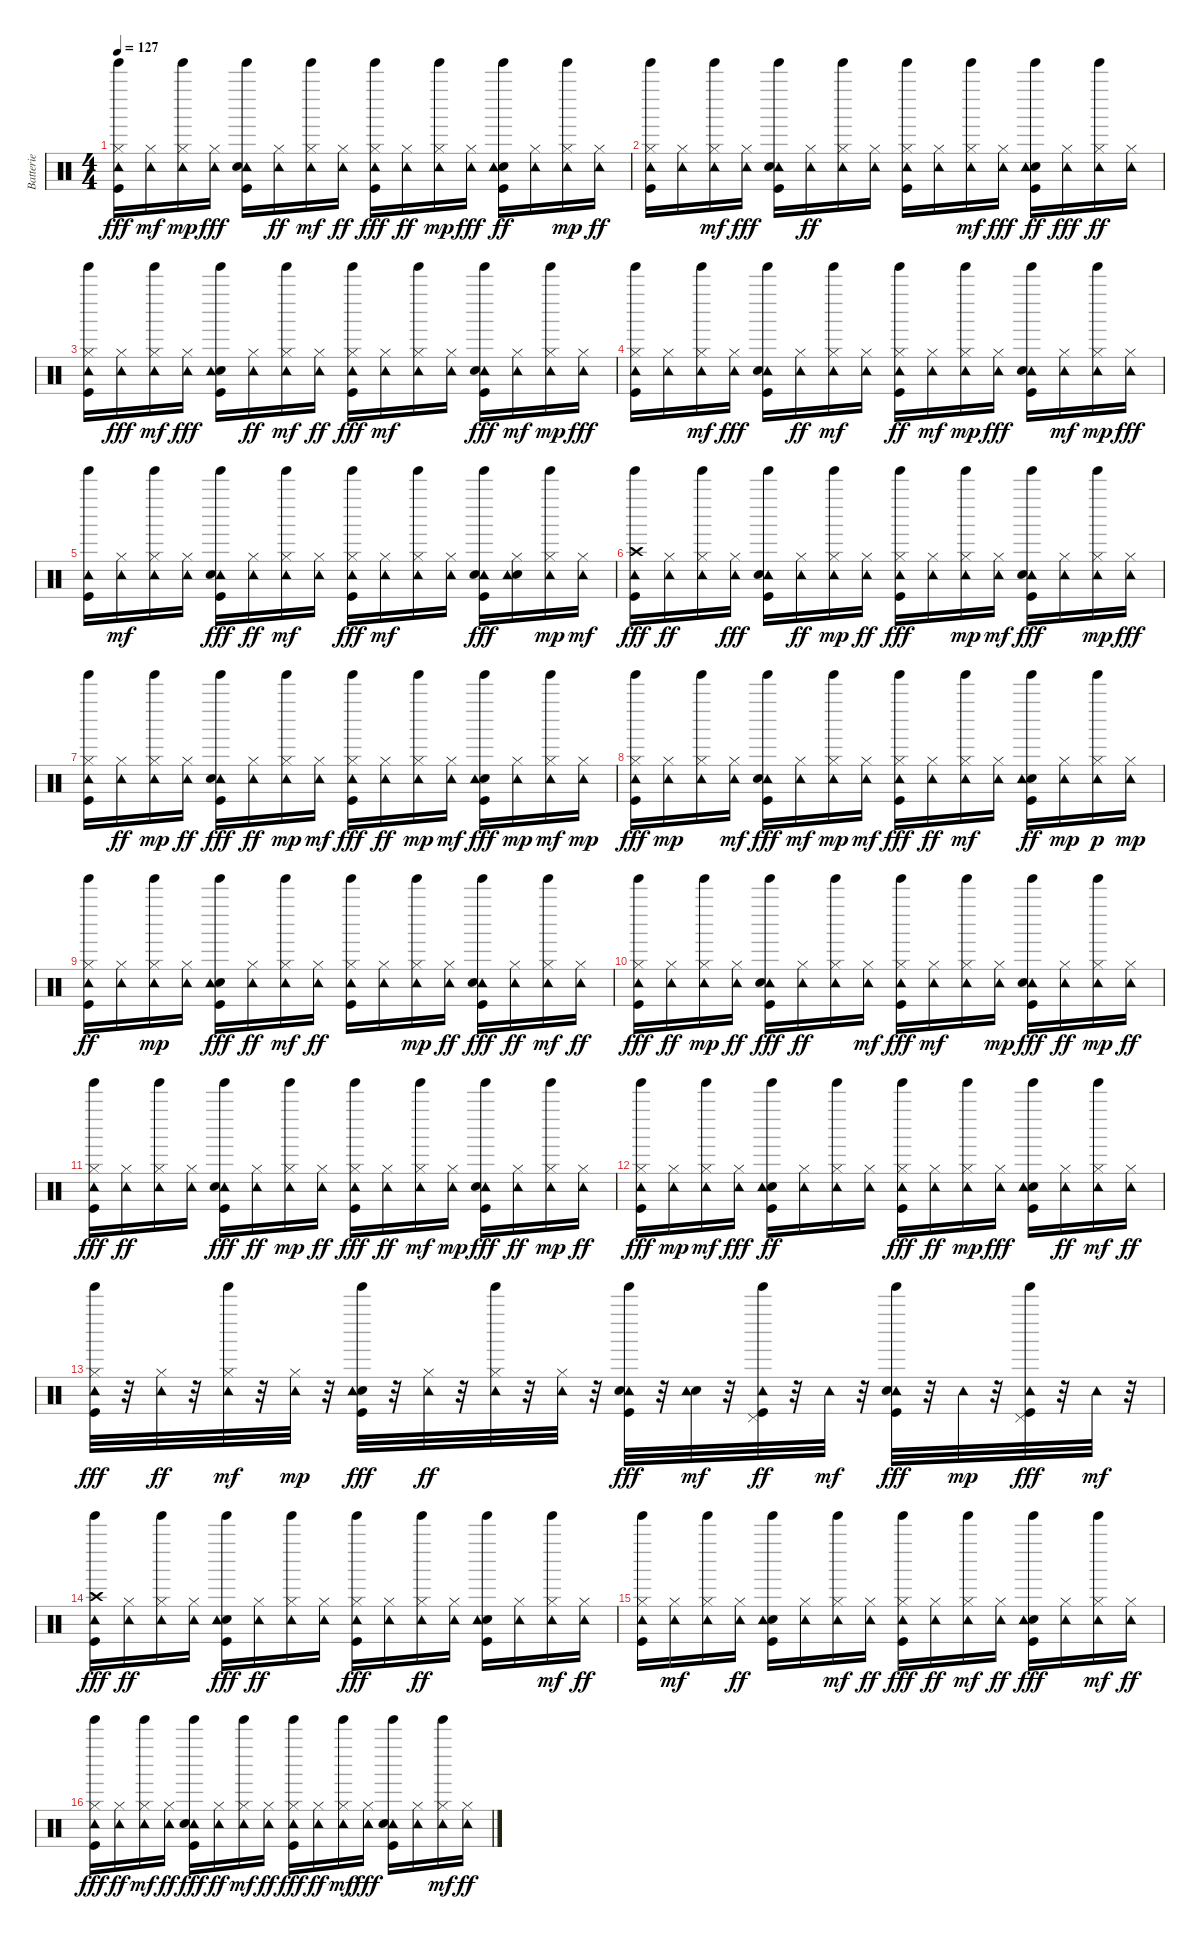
\track ("Batterie" "Batterie") {instrument percussion}
\staff {score}
\articulation defaults
\ts (4 4)
\tempo 127
\clef neutral
\ks c
("Tinkle Bell (hit)" "Tambourine (hit)" "Hi-Hat (closed)" "Kick (hit)").16{dy fff} ("Tambourine (hit)" "Hi-Hat (closed)").16{dy mf} ("Tinkle Bell (hit)" "Hi-Hat (closed)" "Tambourine (hit)").16{dy mp} ("Tambourine (hit)" "Hi-Hat (closed)").16{dy fff} ("Tinkle Bell (hit)" "Tambourine (hit)" "Kick (hit)" "Snare (hit) 2").16 ("Tambourine (hit)" "Hi-Hat (closed)").16{dy ff} ("Tinkle Bell (hit)" "Tambourine (hit)" "Hi-Hat (closed)").16{dy mf} ("Tambourine (hit)" "Hi-Hat (closed)").16{dy ff} ("Tinkle Bell (hit)" "Tambourine (hit)" "Hi-Hat (closed)" "Kick (hit)").16{dy fff} ("Tambourine (hit)" "Hi-Hat (closed)").16{dy ff} ("Hi-Hat (closed)" "Tambourine (hit)" "Tinkle Bell (hit)").16{dy mp} ("Tambourine (hit)" "Hi-Hat (closed)").16{dy fff} ("Tinkle Bell (hit)" "Kick (hit)" "Snare (hit) 2" "Tambourine (hit)").16{dy ff} ("Tambourine (hit)" "Hi-Hat (closed)").16 ("Tinkle Bell (hit)" "Tambourine (hit)" "Hi-Hat (closed)").16{dy mp} ("Tambourine (hit)" "Hi-Hat (closed)").16{dy ff} |
("Tinkle Bell (hit)" "Kick (hit)" "Hi-Hat (closed)" "Tambourine (hit)").16 ("Tambourine (hit)" "Hi-Hat (closed)").16 ("Hi-Hat (closed)" "Tinkle Bell (hit)" "Tambourine (hit)").16{dy mf} ("Tambourine (hit)" "Hi-Hat (closed)").16{dy fff} ("Tinkle Bell (hit)" "Kick (hit)" "Tambourine (hit)" "Snare (hit) 2").16 ("Tambourine (hit)" "Hi-Hat (closed)").16{dy ff} ("Tinkle Bell (hit)" "Tambourine (hit)" "Hi-Hat (closed)").16 ("Tambourine (hit)" "Hi-Hat (closed)").16 ("Tinkle Bell (hit)" "Kick (hit)" "Hi-Hat (closed)" "Tambourine (hit)").16 ("Tambourine (hit)" "Hi-Hat (closed)").16 ("Tinkle Bell (hit)" "Hi-Hat (closed)" "Tambourine (hit)").16{dy mf} ("Tambourine (hit)" "Hi-Hat (closed)").16{dy fff} ("Tinkle Bell (hit)" "Kick (hit)" "Snare (hit) 2" "Tambourine (hit)").16{dy ff} ("Tambourine (hit)" "Hi-Hat (closed)").16{dy fff} ("Tambourine (hit)" "Tinkle Bell (hit)" "Hi-Hat (closed)").16{dy ff} ("Tambourine (hit)" "Hi-Hat (closed)").16 |
("Tinkle Bell (hit)" "Kick (hit)" "Hi-Hat (closed)" "Tambourine (hit)").16 ("Tambourine (hit)" "Hi-Hat (closed)").16{dy fff} ("Hi-Hat (closed)" "Tambourine (hit)" "Tinkle Bell (hit)").16{dy mf} ("Tambourine (hit)" "Hi-Hat (closed)").16{dy fff} ("Tinkle Bell (hit)" "Snare (hit) 2" "Tambourine (hit)" "Kick (hit)").16 ("Tambourine (hit)" "Hi-Hat (closed)").16{dy ff} ("Tinkle Bell (hit)" "Hi-Hat (closed)" "Tambourine (hit)").16{dy mf} ("Tambourine (hit)" "Hi-Hat (closed)").16{dy ff} ("Tinkle Bell (hit)" "Hi-Hat (closed)" "Tambourine (hit)" "Kick (hit)").16{dy fff} ("Hi-Hat (closed)" "Tambourine (hit)").16{dy mf} ("Tinkle Bell (hit)" "Hi-Hat (closed)" "Tambourine (hit)").16 ("Hi-Hat (closed)" "Tambourine (hit)").16 ("Tinkle Bell (hit)" "Kick (hit)" "Tambourine (hit)" "Snare (hit) 2").16{dy fff} ("Hi-Hat (closed)" "Tambourine (hit)").16{dy mf} ("Hi-Hat (closed)" "Tinkle Bell (hit)" "Tambourine (hit)").16{dy mp} ("Tambourine (hit)" "Hi-Hat (closed)").16{dy fff} |
("Hi-Hat (closed)" "Tambourine (hit)" "Tinkle Bell (hit)" "Kick (hit)").16 ("Tambourine (hit)" "Hi-Hat (closed)").16 ("Tambourine (hit)" "Tinkle Bell (hit)" "Hi-Hat (closed)").16{dy mf} ("Tambourine (hit)" "Hi-Hat (closed)").16{dy fff} ("Tinkle Bell (hit)" "Kick (hit)" "Tambourine (hit)" "Snare (hit) 2").16 ("Tambourine (hit)" "Hi-Hat (closed)").16{dy ff} ("Hi-Hat (closed)" "Tambourine (hit)" "Tinkle Bell (hit)").16{dy mf} ("Hi-Hat (closed)" "Tambourine (hit)").16 ("Tinkle Bell (hit)" "Kick (hit)" "Hi-Hat (closed)" "Tambourine (hit)").16{dy ff} ("Hi-Hat (closed)" "Tambourine (hit)").16{dy mf} ("Tinkle Bell (hit)" "Hi-Hat (closed)" "Tambourine (hit)").16{dy mp} ("Tambourine (hit)" "Hi-Hat (closed)").16{dy fff} ("Tinkle Bell (hit)" "Tambourine (hit)" "Kick (hit)" "Snare (hit) 2").16 ("Hi-Hat (closed)" "Tambourine (hit)").16{dy mf} ("Tambourine (hit)" "Hi-Hat (closed)" "Tinkle Bell (hit)").16{dy mp} ("Tambourine (hit)" "Hi-Hat (closed)").16{dy fff} |
("Tambourine (hit)" "Tinkle Bell (hit)" "Kick (hit)").16 ("Hi-Hat (closed)" "Tambourine (hit)").16{dy mf} ("Tinkle Bell (hit)" "Hi-Hat (closed)" "Tambourine (hit)").16 ("Hi-Hat (closed)" "Tambourine (hit)").16 ("Tambourine (hit)" "Tinkle Bell (hit)" "Kick (hit)" "Snare (hit) 2").16{dy fff} ("Tambourine (hit)" "Hi-Hat (closed)").16{dy ff} ("Hi-Hat (closed)" "Tinkle Bell (hit)" "Tambourine (hit)").16{dy mf} ("Hi-Hat (closed)" "Tambourine (hit)").16 ("Tinkle Bell (hit)" "Kick (hit)" "Tambourine (hit)" "Hi-Hat (closed)").16{dy fff} ("Hi-Hat (closed)" "Tambourine (hit)").16{dy mf} ("Hi-Hat (closed)" "Tambourine (hit)" "Tinkle Bell (hit)").16 ("Hi-Hat (closed)" "Tambourine (hit)").16 ("Tambourine (hit)" "Tinkle Bell (hit)" "Kick (hit)" "Snare (hit) 2").16{dy fff} ("Snare (hit) 2" "Hi-Hat (closed)" "Tambourine (hit)").16 ("Hi-Hat (closed)" "Tambourine (hit)" "Tinkle Bell (hit)").16{dy mp} ("Hi-Hat (closed)" "Tambourine (hit)").16{dy mf} |
("Crash high (hit)" "Tinkle Bell (hit)" "Tambourine (hit)" "Kick (hit)").16{dy fff} ("Tambourine (hit)" "Hi-Hat (closed)").16{dy ff} ("Tinkle Bell (hit)" "Tambourine (hit)" "Hi-Hat (closed)").16 ("Tambourine (hit)" "Hi-Hat (closed)").16{dy fff} ("Tambourine (hit)" "Kick (hit)" "Snare (hit) 2" "Tinkle Bell (hit)").16 ("Tambourine (hit)" "Hi-Hat (closed)").16{dy ff} ("Hi-Hat (closed)" "Tambourine (hit)" "Tinkle Bell (hit)").16{dy mp} ("Tambourine (hit)" "Hi-Hat (closed)").16{dy ff} ("Kick (hit)" "Tambourine (hit)" "Tinkle Bell (hit)" "Hi-Hat (closed)").16{dy fff} ("Tambourine (hit)" "Hi-Hat (closed)").16 ("Hi-Hat (closed)" "Tambourine (hit)" "Tinkle Bell (hit)").16{dy mp} ("Hi-Hat (closed)" "Tambourine (hit)").16{dy mf} ("Tinkle Bell (hit)" "Tambourine (hit)" "Kick (hit)" "Snare (hit) 2").16{dy fff} ("Tambourine (hit)" "Hi-Hat (closed)").16 ("Hi-Hat (closed)" "Tambourine (hit)" "Tinkle Bell (hit)").16{dy mp} ("Tambourine (hit)" "Hi-Hat (closed)").16{dy fff} |
("Tambourine (hit)" "Kick (hit)" "Hi-Hat (closed)" "Tinkle Bell (hit)").16 ("Tambourine (hit)" "Hi-Hat (closed)").16{dy ff} ("Hi-Hat (closed)" "Tambourine (hit)" "Tinkle Bell (hit)").16{dy mp} ("Tambourine (hit)" "Hi-Hat (closed)").16{dy ff} ("Tambourine (hit)" "Tinkle Bell (hit)" "Kick (hit)" "Snare (hit) 2").16{dy fff} ("Tambourine (hit)" "Hi-Hat (closed)").16{dy ff} ("Tinkle Bell (hit)" "Hi-Hat (closed)" "Tambourine (hit)").16{dy mp} ("Hi-Hat (closed)" "Tambourine (hit)").16{dy mf} ("Tinkle Bell (hit)" "Tambourine (hit)" "Kick (hit)" "Hi-Hat (closed)").16{dy fff} ("Tambourine (hit)" "Hi-Hat (closed)").16{dy ff} ("Tinkle Bell (hit)" "Hi-Hat (closed)" "Tambourine (hit)").16{dy mp} ("Hi-Hat (closed)" "Tambourine (hit)").16{dy mf} ("Tinkle Bell (hit)" "Snare (hit) 2" "Kick (hit)" "Tambourine (hit)").16{dy fff} ("Hi-Hat (closed)" "Tambourine (hit)").16{dy mp} ("Hi-Hat (closed)" "Tinkle Bell (hit)" "Tambourine (hit)").16{dy mf} ("Hi-Hat (closed)" "Tambourine (hit)").16{dy mp} |
("Hi-Hat (closed)" "Tinkle Bell (hit)" "Tambourine (hit)" "Kick (hit)").16{dy fff} ("Tambourine (hit)" "Hi-Hat (closed)").16{dy mp} ("Hi-Hat (closed)" "Tinkle Bell (hit)" "Tambourine (hit)").16 ("Hi-Hat (closed)" "Tambourine (hit)").16{dy mf} ("Tinkle Bell (hit)" "Kick (hit)" "Tambourine (hit)" "Snare (hit) 2").16{dy fff} ("Hi-Hat (closed)" "Tambourine (hit)").16{dy mf} ("Tinkle Bell (hit)" "Tambourine (hit)" "Hi-Hat (closed)").16{dy mp} ("Hi-Hat (closed)" "Tambourine (hit)").16{dy mf} ("Tinkle Bell (hit)" "Kick (hit)" "Hi-Hat (closed)" "Tambourine (hit)").16{dy fff} ("Tambourine (hit)" "Hi-Hat (closed)").16{dy ff} ("Tinkle Bell (hit)" "Hi-Hat (closed)" "Tambourine (hit)").16{dy mf} ("Hi-Hat (closed)" "Tambourine (hit)").16 ("Tinkle Bell (hit)" "Kick (hit)" "Snare (hit) 2" "Tambourine (hit)").16{dy ff} ("Hi-Hat (closed)" "Tambourine (hit)").16{dy mp} ("Tinkle Bell (hit)" "Hi-Hat (closed)" "Tambourine (hit)").16{dy p} ("Hi-Hat (closed)" "Tambourine (hit)").16{dy mp} |
("Kick (hit)" "Hi-Hat (closed)" "Tambourine (hit)" "Tinkle Bell (hit)").16{dy ff} ("Tambourine (hit)" "Hi-Hat (closed)").16 ("Hi-Hat (closed)" "Tambourine (hit)" "Tinkle Bell (hit)").16{dy mp} ("Hi-Hat (closed)" "Tambourine (hit)").16 ("Tinkle Bell (hit)" "Snare (hit) 2" "Tambourine (hit)" "Kick (hit)").16{dy fff} ("Tambourine (hit)" "Hi-Hat (closed)").16{dy ff} ("Tinkle Bell (hit)" "Tambourine (hit)" "Hi-Hat (closed)").16{dy mf} ("Tambourine (hit)" "Hi-Hat (closed)").16{dy ff} ("Tinkle Bell (hit)" "Hi-Hat (closed)" "Kick (hit)" "Tambourine (hit)").16 ("Tambourine (hit)" "Hi-Hat (closed)").16 ("Tinkle Bell (hit)" "Hi-Hat (closed)" "Tambourine (hit)").16{dy mp} ("Tambourine (hit)" "Hi-Hat (closed)").16{dy ff} ("Tinkle Bell (hit)" "Tambourine (hit)" "Kick (hit)" "Snare (hit) 2").16{dy fff} ("Tambourine (hit)" "Hi-Hat (closed)").16{dy ff} ("Tinkle Bell (hit)" "Tambourine (hit)" "Hi-Hat (closed)").16{dy mf} ("Tambourine (hit)" "Hi-Hat (closed)").16{dy ff} |
("Tinkle Bell (hit)" "Hi-Hat (closed)" "Tambourine (hit)" "Kick (hit)").16{dy fff} ("Tambourine (hit)" "Hi-Hat (closed)").16{dy ff} ("Tambourine (hit)" "Tinkle Bell (hit)" "Hi-Hat (closed)").16{dy mp} ("Tambourine (hit)" "Hi-Hat (closed)").16{dy ff} ("Tinkle Bell (hit)" "Kick (hit)" "Tambourine (hit)" "Snare (hit) 2").16{dy fff} ("Tambourine (hit)" "Hi-Hat (closed)").16{dy ff} ("Tinkle Bell (hit)" "Tambourine (hit)" "Hi-Hat (closed)").16 ("Tambourine (hit)" "Hi-Hat (closed)").16{dy mf} ("Tinkle Bell (hit)" "Hi-Hat (closed)" "Tambourine (hit)" "Kick (hit)").16{dy fff} ("Tambourine (hit)" "Hi-Hat (closed)").16{dy mf} ("Tinkle Bell (hit)" "Hi-Hat (closed)" "Tambourine (hit)").16 ("Tambourine (hit)" "Hi-Hat (closed)").16{dy mp} ("Tinkle Bell (hit)" "Kick (hit)" "Tambourine (hit)" "Snare (hit) 2").16{dy fff} ("Tambourine (hit)" "Hi-Hat (closed)").16{dy ff} ("Tinkle Bell (hit)" "Tambourine (hit)" "Hi-Hat (closed)").16{dy mp} ("Tambourine (hit)" "Hi-Hat (closed)").16{dy ff} |
("Tinkle Bell (hit)" "Kick (hit)" "Tambourine (hit)" "Hi-Hat (closed)").16{dy fff} ("Tambourine (hit)" "Hi-Hat (closed)").16{dy ff} ("Tinkle Bell (hit)" "Tambourine (hit)" "Hi-Hat (closed)").16 ("Tambourine (hit)" "Hi-Hat (closed)").16 ("Tinkle Bell (hit)" "Kick (hit)" "Tambourine (hit)" "Snare (hit) 2").16{dy fff} ("Tambourine (hit)" "Hi-Hat (closed)").16{dy ff} ("Tinkle Bell (hit)" "Hi-Hat (closed)" "Tambourine (hit)").16{dy mp} ("Tambourine (hit)" "Hi-Hat (closed)").16{dy ff} ("Hi-Hat (closed)" "Tambourine (hit)" "Tinkle Bell (hit)" "Kick (hit)").16{dy fff} ("Tambourine (hit)" "Hi-Hat (closed)").16{dy ff} ("Hi-Hat (closed)" "Tambourine (hit)" "Tinkle Bell (hit)").16{dy mf} ("Hi-Hat (closed)" "Tambourine (hit)").16{dy mp} ("Tambourine (hit)" "Tinkle Bell (hit)" "Kick (hit)" "Snare (hit) 2").16{dy fff} ("Tambourine (hit)" "Hi-Hat (closed)").16{dy ff} ("Tinkle Bell (hit)" "Tambourine (hit)" "Hi-Hat (closed)").16{dy mp} ("Tambourine (hit)" "Hi-Hat (closed)").16{dy ff} |
("Tambourine (hit)" "Tinkle Bell (hit)" "Kick (hit)" "Hi-Hat (closed)").16{dy fff} ("Tambourine (hit)" "Hi-Hat (closed)").16{dy mp} ("Tinkle Bell (hit)" "Hi-Hat (closed)" "Tambourine (hit)").16{dy mf} ("Tambourine (hit)" "Hi-Hat (closed)").16{dy fff} ("Tinkle Bell (hit)" "Kick (hit)" "Snare (hit) 2" "Tambourine (hit)").16{dy ff} ("Tambourine (hit)" "Hi-Hat (closed)").16 ("Tinkle Bell (hit)" "Tambourine (hit)" "Hi-Hat (closed)").16 ("Tambourine (hit)" "Hi-Hat (closed)").16 ("Tinkle Bell (hit)" "Tambourine (hit)" "Kick (hit)" "Hi-Hat (closed)").16{dy fff} ("Tambourine (hit)" "Hi-Hat (closed)").16{dy ff} ("Tinkle Bell (hit)" "Tambourine (hit)" "Hi-Hat (closed)").16{dy mp} ("Tambourine (hit)" "Hi-Hat (closed)").16{dy fff} ("Snare (hit) 2" "Tinkle Bell (hit)" "Tambourine (hit)" "Kick (hit)").16 ("Tambourine (hit)" "Hi-Hat (closed)").16{dy ff} ("Tambourine (hit)" "Tinkle Bell (hit)" "Hi-Hat (closed)").16{dy mf} ("Tambourine (hit)" "Hi-Hat (closed)").16{dy ff} |
("Tinkle Bell (hit)" "Hi-Hat (closed)" "Tambourine (hit)" "Kick (hit)").32{dy fff} r.32 ("Tambourine (hit)" "Hi-Hat (closed)").32{dy ff} r.32 ("Tambourine (hit)" "Tinkle Bell (hit)" "Hi-Hat (closed)").32{dy mf} r.32 ("Hi-Hat (closed)" "Tambourine (hit)").32{dy mp} r.32 ("Snare (hit) 2" "Tambourine (hit)" "Tinkle Bell (hit)" "Kick (hit)").32{dy fff} r.32 ("Tambourine (hit)" "Hi-Hat (closed)").32{dy ff} r.32 ("Tinkle Bell (hit)" "Tambourine (hit)" "Hi-Hat (closed)").32 r.32 ("Tambourine (hit)" "Hi-Hat (closed)").32 r.32 ("Tinkle Bell (hit)" "Kick (hit)" "Tambourine (hit)" "Snare (hit) 2").32{dy fff} r.32 ("Snare (hit) 2" "Tambourine (hit)").32{dy mf} r.32 ("Tambourine (hit)" "Tinkle Bell (hit)" "Pedal Hi-Hat (hit)" "Kick (hit)").32{dy ff} r.32 "Tambourine (hit)".32{dy mf} r.32 ("Tinkle Bell (hit)" "Tambourine (hit)" "Snare (hit) 2" "Kick (hit)").32{dy fff} r.32 "Tambourine (hit)".32{dy mp} r.32 ("Tinkle Bell (hit)" "Tambourine (hit)" "Kick (hit)" "Pedal Hi-Hat (hit)").32{dy fff} r.32 "Tambourine (hit)".32{dy mf} r.32 |
("Crash high (hit)" "Tinkle Bell (hit)" "Tambourine (hit)" "Kick (hit)").16{dy fff} ("Tambourine (hit)" "Hi-Hat (closed)").16{dy ff} ("Tambourine (hit)" "Tinkle Bell (hit)" "Hi-Hat (closed)").16 ("Tambourine (hit)" "Hi-Hat (closed)").16 ("Tinkle Bell (hit)" "Snare (hit) 2" "Tambourine (hit)" "Kick (hit)").16{dy fff} ("Tambourine (hit)" "Hi-Hat (closed)").16{dy ff} ("Tambourine (hit)" "Tinkle Bell (hit)" "Hi-Hat (closed)").16 ("Tambourine (hit)" "Hi-Hat (closed)").16 ("Tambourine (hit)" "Tinkle Bell (hit)" "Kick (hit)" "Hi-Hat (closed)").16{dy fff} ("Tambourine (hit)" "Hi-Hat (closed)").16 ("Tinkle Bell (hit)" "Tambourine (hit)" "Hi-Hat (closed)").16{dy ff} ("Tambourine (hit)" "Hi-Hat (closed)").16 ("Tinkle Bell (hit)" "Kick (hit)" "Snare (hit) 2" "Tambourine (hit)").16 ("Tambourine (hit)" "Hi-Hat (closed)").16 ("Tinkle Bell (hit)" "Tambourine (hit)" "Hi-Hat (closed)").16{dy mf} ("Tambourine (hit)" "Hi-Hat (closed)").16{dy ff} |
("Tinkle Bell (hit)" "Kick (hit)" "Hi-Hat (closed)" "Tambourine (hit)").16 ("Tambourine (hit)" "Hi-Hat (closed)").16{dy mf} ("Hi-Hat (closed)" "Tinkle Bell (hit)" "Tambourine (hit)").16 ("Tambourine (hit)" "Hi-Hat (closed)").16{dy ff} ("Tinkle Bell (hit)" "Kick (hit)" "Snare (hit) 2" "Tambourine (hit)").16 ("Tambourine (hit)" "Hi-Hat (closed)").16 ("Tinkle Bell (hit)" "Tambourine (hit)" "Hi-Hat (closed)").16{dy mf} ("Tambourine (hit)" "Hi-Hat (closed)").16{dy ff} ("Tinkle Bell (hit)" "Hi-Hat (closed)" "Kick (hit)" "Tambourine (hit)").16{dy fff} ("Tambourine (hit)" "Hi-Hat (closed)").16{dy ff} ("Hi-Hat (closed)" "Tinkle Bell (hit)" "Tambourine (hit)").16{dy mf} ("Tambourine (hit)" "Hi-Hat (closed)").16{dy ff} ("Tinkle Bell (hit)" "Snare (hit) 2" "Tambourine (hit)" "Kick (hit)").16{dy fff} ("Tambourine (hit)" "Hi-Hat (closed)").16 ("Tinkle Bell (hit)" "Hi-Hat (closed)" "Tambourine (hit)").16{dy mf} ("Tambourine (hit)" "Hi-Hat (closed)").16{dy ff} |
("Hi-Hat (closed)" "Tambourine (hit)" "Tinkle Bell (hit)" "Kick (hit)").16{dy fff} ("Tambourine (hit)" "Hi-Hat (closed)").16{dy ff} ("Hi-Hat (closed)" "Tambourine (hit)" "Tinkle Bell (hit)").16{dy mf} ("Tambourine (hit)" "Hi-Hat (closed)").16{dy ff} ("Tambourine (hit)" "Kick (hit)" "Snare (hit) 2" "Tinkle Bell (hit)").16{dy fff} ("Tambourine (hit)" "Hi-Hat (closed)").16{dy ff} ("Tinkle Bell (hit)" "Tambourine (hit)" "Hi-Hat (closed)").16{dy mf} ("Tambourine (hit)" "Hi-Hat (closed)").16{dy ff} ("Tinkle Bell (hit)" "Hi-Hat (closed)" "Tambourine (hit)" "Kick (hit)").16{dy fff} ("Tambourine (hit)" "Hi-Hat (closed)").16{dy ff} ("Hi-Hat (closed)" "Tinkle Bell (hit)" "Tambourine (hit)").16{dy mf} ("Tambourine (hit)" "Hi-Hat (closed)").16{dy fff} ("Tinkle Bell (hit)" "Tambourine (hit)" "Kick (hit)" "Snare (hit) 2").16 ("Tambourine (hit)" "Hi-Hat (closed)").16 ("Tambourine (hit)" "Tinkle Bell (hit)" "Hi-Hat (closed)").16{dy mf} ("Tambourine (hit)" "Hi-Hat (closed)").16{dy ff}
